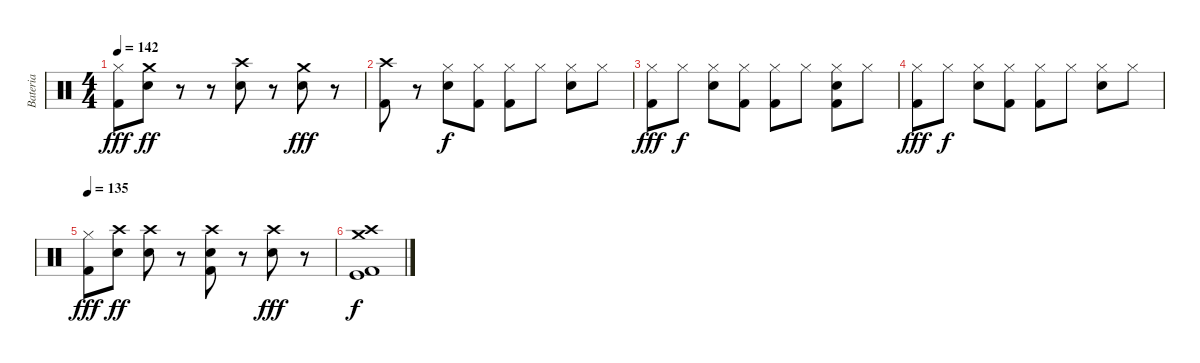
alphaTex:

\track ("Bateria" "Bateria") {instrument percussion}
\staff {score}
\articulation defaults
\ts (4 4)
\tempo 142
\clef neutral
\ks c
("Hi-Hat (closed)" "Kick (hit) 2").8{dy fff} ("Crash medium (hit)" "Electric Snare (hit)").8{dy ff} r.8 r.8 ("Crash high (hit)" "Electric Snare (hit)").8 r.8 ("Crash medium (hit)" "Electric Snare (hit)").8{dy fff} r.8 |
("Crash high (hit)" "Kick (hit) 2").8 r.8 ("Hi-Hat (closed)" "Electric Snare (hit)").8{dy f} ("Hi-Hat (closed)" "Kick (hit) 2").8 ("Hi-Hat (closed)" "Kick (hit) 2").8 "Hi-Hat (closed)".8 ("Hi-Hat (closed)" "Electric Snare (hit)").8 "Hi-Hat (closed)".8 |
("Hi-Hat (closed)" "Kick (hit) 2").8{dy fff} "Hi-Hat (closed)".8{dy f} ("Hi-Hat (closed)" "Electric Snare (hit)").8 ("Hi-Hat (closed)" "Kick (hit) 2").8 ("Hi-Hat (closed)" "Kick (hit) 2").8 "Hi-Hat (closed)".8 ("Hi-Hat (closed)" "Electric Snare (hit)" "Kick (hit) 2").8 "Hi-Hat (closed)".8 |
("Hi-Hat (closed)" "Kick (hit) 2").8{dy fff} "Hi-Hat (closed)".8{dy f} ("Hi-Hat (closed)" "Electric Snare (hit)").8 ("Hi-Hat (closed)" "Kick (hit) 2").8 ("Hi-Hat (closed)" "Kick (hit) 2").8 "Hi-Hat (closed)".8 ("Hi-Hat (closed)" "Electric Snare (hit)").8 "Hi-Hat (closed)".8 |
\tempo 135
("Hi-Hat (closed)" "Kick (hit) 2").8{dy fff} ("Crash high (hit)" "Electric Snare (hit)").8{dy ff} ("Crash high (hit)" "Electric Snare (hit)").8 r.8 ("Crash high (hit)" "Electric Snare (hit)" "Kick (hit) 2").8 r.8 ("Crash high (hit)" "Electric Snare (hit)").8{dy fff} r.8 |
("Crash medium (hit)" "Crash high (hit)" "Kick (hit)" "Kick (hit) 2").1{dy f}
